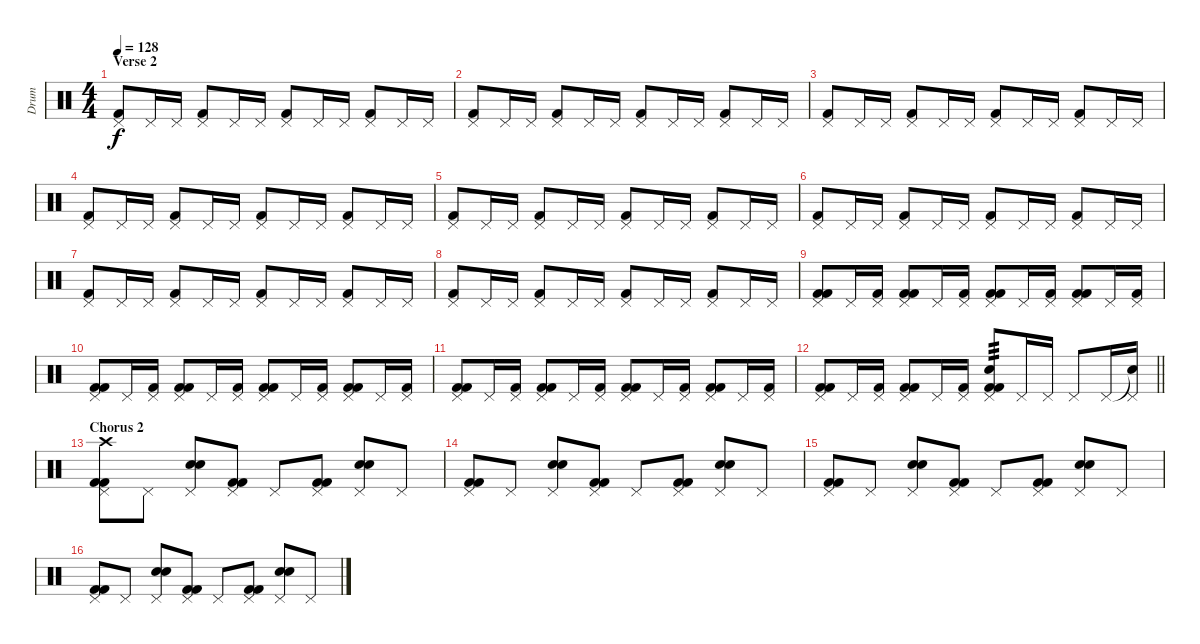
\track ("Drum" "Drum") {instrument percussion}
\staff {score}
\articulation defaults
\ts (4 4)
\section ("" "Verse 2")
\tempo 128
\clef neutral
\ks c
("Pedal Hi-Hat (hit)" "Kick (hit) 2").8{dy f} "Pedal Hi-Hat (hit)".16 "Pedal Hi-Hat (hit)".16 ("Pedal Hi-Hat (hit)" "Kick (hit) 2").8 "Pedal Hi-Hat (hit)".16 "Pedal Hi-Hat (hit)".16 ("Pedal Hi-Hat (hit)" "Kick (hit) 2").8 "Pedal Hi-Hat (hit)".16 "Pedal Hi-Hat (hit)".16 ("Pedal Hi-Hat (hit)" "Kick (hit) 2").8 "Pedal Hi-Hat (hit)".16 "Pedal Hi-Hat (hit)".16 |
("Pedal Hi-Hat (hit)" "Kick (hit) 2").8 "Pedal Hi-Hat (hit)".16 "Pedal Hi-Hat (hit)".16 ("Pedal Hi-Hat (hit)" "Kick (hit) 2").8 "Pedal Hi-Hat (hit)".16 "Pedal Hi-Hat (hit)".16 ("Pedal Hi-Hat (hit)" "Kick (hit) 2").8 "Pedal Hi-Hat (hit)".16 "Pedal Hi-Hat (hit)".16 ("Pedal Hi-Hat (hit)" "Kick (hit) 2").8 "Pedal Hi-Hat (hit)".16 "Pedal Hi-Hat (hit)".16 |
("Pedal Hi-Hat (hit)" "Kick (hit) 2").8 "Pedal Hi-Hat (hit)".16 "Pedal Hi-Hat (hit)".16 ("Pedal Hi-Hat (hit)" "Kick (hit) 2").8 "Pedal Hi-Hat (hit)".16 "Pedal Hi-Hat (hit)".16 ("Pedal Hi-Hat (hit)" "Kick (hit) 2").8 "Pedal Hi-Hat (hit)".16 "Pedal Hi-Hat (hit)".16 ("Pedal Hi-Hat (hit)" "Kick (hit) 2").8 "Pedal Hi-Hat (hit)".16 "Pedal Hi-Hat (hit)".16 |
("Pedal Hi-Hat (hit)" "Kick (hit) 2").8 "Pedal Hi-Hat (hit)".16 "Pedal Hi-Hat (hit)".16 ("Pedal Hi-Hat (hit)" "Kick (hit) 2").8 "Pedal Hi-Hat (hit)".16 "Pedal Hi-Hat (hit)".16 ("Pedal Hi-Hat (hit)" "Kick (hit) 2").8 "Pedal Hi-Hat (hit)".16 "Pedal Hi-Hat (hit)".16 ("Pedal Hi-Hat (hit)" "Kick (hit) 2").8 "Pedal Hi-Hat (hit)".16 "Pedal Hi-Hat (hit)".16 |
("Pedal Hi-Hat (hit)" "Kick (hit) 2").8 "Pedal Hi-Hat (hit)".16 "Pedal Hi-Hat (hit)".16 ("Pedal Hi-Hat (hit)" "Kick (hit) 2").8 "Pedal Hi-Hat (hit)".16 "Pedal Hi-Hat (hit)".16 ("Pedal Hi-Hat (hit)" "Kick (hit) 2").8 "Pedal Hi-Hat (hit)".16 "Pedal Hi-Hat (hit)".16 ("Pedal Hi-Hat (hit)" "Kick (hit) 2").8 "Pedal Hi-Hat (hit)".16 "Pedal Hi-Hat (hit)".16 |
("Pedal Hi-Hat (hit)" "Kick (hit) 2").8 "Pedal Hi-Hat (hit)".16 "Pedal Hi-Hat (hit)".16 ("Pedal Hi-Hat (hit)" "Kick (hit) 2").8 "Pedal Hi-Hat (hit)".16 "Pedal Hi-Hat (hit)".16 ("Pedal Hi-Hat (hit)" "Kick (hit) 2").8 "Pedal Hi-Hat (hit)".16 "Pedal Hi-Hat (hit)".16 ("Pedal Hi-Hat (hit)" "Kick (hit) 2").8 "Pedal Hi-Hat (hit)".16 "Pedal Hi-Hat (hit)".16 |
("Pedal Hi-Hat (hit)" "Kick (hit) 2").8 "Pedal Hi-Hat (hit)".16 "Pedal Hi-Hat (hit)".16 ("Pedal Hi-Hat (hit)" "Kick (hit) 2").8 "Pedal Hi-Hat (hit)".16 "Pedal Hi-Hat (hit)".16 ("Pedal Hi-Hat (hit)" "Kick (hit) 2").8 "Pedal Hi-Hat (hit)".16 "Pedal Hi-Hat (hit)".16 ("Pedal Hi-Hat (hit)" "Kick (hit) 2").8 "Pedal Hi-Hat (hit)".16 "Pedal Hi-Hat (hit)".16 |
("Pedal Hi-Hat (hit)" "Kick (hit) 2").8 "Pedal Hi-Hat (hit)".16 "Pedal Hi-Hat (hit)".16 ("Pedal Hi-Hat (hit)" "Kick (hit) 2").8 "Pedal Hi-Hat (hit)".16 "Pedal Hi-Hat (hit)".16 ("Pedal Hi-Hat (hit)" "Kick (hit) 2").8 "Pedal Hi-Hat (hit)".16 "Pedal Hi-Hat (hit)".16 ("Pedal Hi-Hat (hit)" "Kick (hit) 2").8 "Pedal Hi-Hat (hit)".16 "Pedal Hi-Hat (hit)".16 |
("Pedal Hi-Hat (hit)" "Kick (hit) 2" "Kick (hit) 2").8 "Pedal Hi-Hat (hit)".16 ("Pedal Hi-Hat (hit)" "Kick (hit) 2").16 ("Pedal Hi-Hat (hit)" "Kick (hit) 2" "Kick (hit) 2").8 "Pedal Hi-Hat (hit)".16 ("Pedal Hi-Hat (hit)" "Kick (hit) 2").16 ("Pedal Hi-Hat (hit)" "Kick (hit) 2" "Kick (hit) 2").8 "Pedal Hi-Hat (hit)".16 ("Pedal Hi-Hat (hit)" "Kick (hit) 2").16 ("Pedal Hi-Hat (hit)" "Kick (hit) 2" "Kick (hit) 2").8 "Pedal Hi-Hat (hit)".16 ("Pedal Hi-Hat (hit)" "Kick (hit) 2").16 |
("Pedal Hi-Hat (hit)" "Kick (hit) 2" "Kick (hit) 2").8 "Pedal Hi-Hat (hit)".16 ("Pedal Hi-Hat (hit)" "Kick (hit) 2").16 ("Pedal Hi-Hat (hit)" "Kick (hit) 2" "Kick (hit) 2").8 "Pedal Hi-Hat (hit)".16 ("Pedal Hi-Hat (hit)" "Kick (hit) 2").16 ("Pedal Hi-Hat (hit)" "Kick (hit) 2" "Kick (hit) 2").8 "Pedal Hi-Hat (hit)".16 ("Pedal Hi-Hat (hit)" "Kick (hit) 2").16 ("Pedal Hi-Hat (hit)" "Kick (hit) 2" "Kick (hit) 2").8 "Pedal Hi-Hat (hit)".16 ("Pedal Hi-Hat (hit)" "Kick (hit) 2").16 |
("Pedal Hi-Hat (hit)" "Kick (hit) 2" "Kick (hit) 2").8 "Pedal Hi-Hat (hit)".16 ("Pedal Hi-Hat (hit)" "Kick (hit) 2").16 ("Pedal Hi-Hat (hit)" "Kick (hit) 2" "Kick (hit) 2").8 "Pedal Hi-Hat (hit)".16 ("Pedal Hi-Hat (hit)" "Kick (hit) 2").16 ("Pedal Hi-Hat (hit)" "Kick (hit) 2" "Kick (hit) 2").8 "Pedal Hi-Hat (hit)".16 ("Pedal Hi-Hat (hit)" "Kick (hit) 2").16 ("Pedal Hi-Hat (hit)" "Kick (hit) 2" "Kick (hit) 2").8 "Pedal Hi-Hat (hit)".16 ("Pedal Hi-Hat (hit)" "Kick (hit) 2").16 |
\barLineRight lightlight
("Pedal Hi-Hat (hit)" "Kick (hit) 2" "Kick (hit) 2").8 "Pedal Hi-Hat (hit)".16 ("Pedal Hi-Hat (hit)" "Kick (hit) 2").16 ("Pedal Hi-Hat (hit)" "Kick (hit) 2" "Kick (hit) 2").8 "Pedal Hi-Hat (hit)".16 ("Pedal Hi-Hat (hit)" "Kick (hit) 2").16 ("Snare (hit) 2" "Pedal Hi-Hat (hit)" "Kick (hit) 2" "Kick (hit) 2").8{tp 3} "Pedal Hi-Hat (hit)".16 "Pedal Hi-Hat (hit)".16 "Pedal Hi-Hat (hit)".8 "Pedal Hi-Hat (hit)".16 ("Snare (hit)"{t} "Pedal Hi-Hat (hit)").16 |
\section ("" "Chorus 2")
("Kick (hit) 2" "Kick (hit) 2" "Pedal Hi-Hat (hit)" "Crash high (hit)").8 "Pedal Hi-Hat (hit)".8 ("Snare (hit) 2" "Snare (hit) 2" "Pedal Hi-Hat (hit)").8 ("Kick (hit) 2" "Kick (hit) 2" "Pedal Hi-Hat (hit)").8 "Pedal Hi-Hat (hit)".8 ("Kick (hit) 2" "Kick (hit) 2" "Pedal Hi-Hat (hit)").8 ("Snare (hit) 2" "Snare (hit) 2" "Pedal Hi-Hat (hit)").8 "Pedal Hi-Hat (hit)".8 |
("Kick (hit) 2" "Kick (hit) 2" "Pedal Hi-Hat (hit)").8 "Pedal Hi-Hat (hit)".8 ("Snare (hit) 2" "Snare (hit) 2" "Pedal Hi-Hat (hit)").8 ("Kick (hit) 2" "Kick (hit) 2" "Pedal Hi-Hat (hit)").8 "Pedal Hi-Hat (hit)".8 ("Kick (hit) 2" "Kick (hit) 2" "Pedal Hi-Hat (hit)").8 ("Snare (hit) 2" "Snare (hit) 2" "Pedal Hi-Hat (hit)").8 "Pedal Hi-Hat (hit)".8 |
("Kick (hit) 2" "Kick (hit) 2" "Pedal Hi-Hat (hit)").8 "Pedal Hi-Hat (hit)".8 ("Snare (hit) 2" "Snare (hit) 2" "Pedal Hi-Hat (hit)").8 ("Kick (hit) 2" "Kick (hit) 2" "Pedal Hi-Hat (hit)").8 "Pedal Hi-Hat (hit)".8 ("Kick (hit) 2" "Kick (hit) 2" "Pedal Hi-Hat (hit)").8 ("Snare (hit) 2" "Snare (hit) 2" "Pedal Hi-Hat (hit)").8 "Pedal Hi-Hat (hit)".8 |
("Kick (hit) 2" "Kick (hit) 2" "Pedal Hi-Hat (hit)").8 "Pedal Hi-Hat (hit)".8 ("Snare (hit) 2" "Snare (hit) 2" "Pedal Hi-Hat (hit)").8 ("Kick (hit) 2" "Kick (hit) 2" "Pedal Hi-Hat (hit)").8 "Pedal Hi-Hat (hit)".8 ("Kick (hit) 2" "Kick (hit) 2" "Pedal Hi-Hat (hit)").8 ("Snare (hit) 2" "Snare (hit) 2" "Pedal Hi-Hat (hit)").8 "Pedal Hi-Hat (hit)".8
